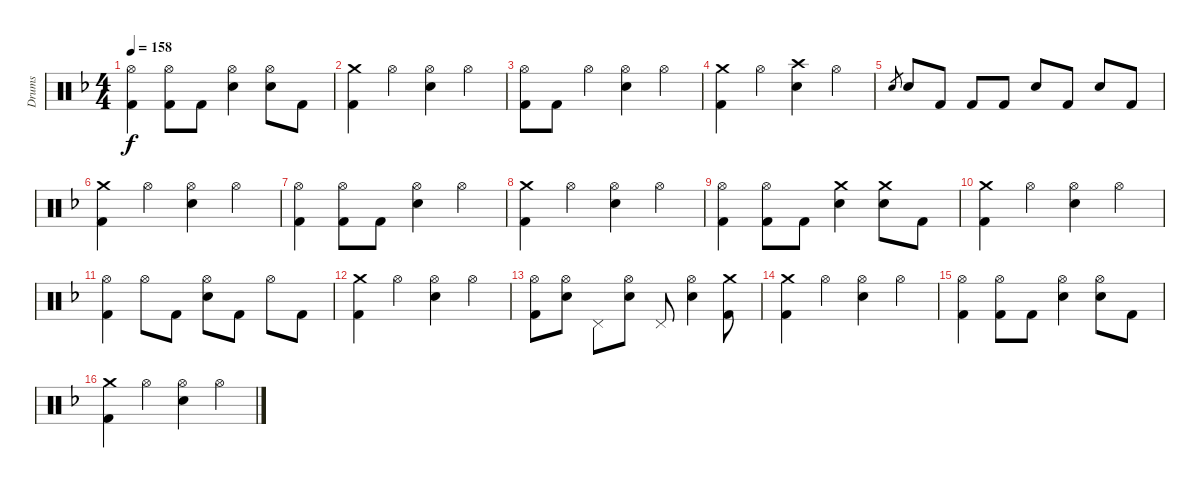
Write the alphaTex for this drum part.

\track ("Drums" "Drums") {instrument percussion}
\staff {score}
\articulation defaults
\ts (4 4)
\tempo 158
\clef neutral
\ks f
("Hi-Hat (open)" "Kick (hit) 2").4{dy f} ("Hi-Hat (open)" "Kick (hit) 2").8 "Kick (hit) 2".8 ("Hi-Hat (open)" "Snare (hit) 2").4 ("Hi-Hat (open)" "Snare (hit) 2").8 "Kick (hit) 2".8 |
("Crash medium (hit)" "Kick (hit) 2").4 "Hi-Hat (open)".4 ("Hi-Hat (open)" "Snare (hit) 2").4 "Hi-Hat (open)".4 |
("Hi-Hat (open)" "Kick (hit) 2").8 "Kick (hit) 2".8 "Hi-Hat (open)".4 ("Hi-Hat (open)" "Snare (hit) 2").4 "Hi-Hat (open)".4 |
("Crash medium (hit)" "Kick (hit) 2").4 "Hi-Hat (open)".4 ("Crash high (hit)" "Snare (hit) 2").4 "Hi-Hat (open)".4 |
"Snare (hit) 2".8{gr} "Snare (hit) 2".8 "Kick (hit) 2".8 "Kick (hit) 2".8 "Kick (hit) 2".8 "Snare (hit) 2".8 "Kick (hit) 2".8 "Snare (hit) 2".8 "Kick (hit) 2".8 |
("Crash medium (hit)" "Kick (hit) 2").4 "Hi-Hat (open)".4 ("Hi-Hat (open)" "Snare (hit) 2").4 "Hi-Hat (open)".4 |
("Hi-Hat (open)" "Kick (hit) 2").4 ("Hi-Hat (open)" "Kick (hit) 2").8 "Kick (hit) 2".8 ("Hi-Hat (open)" "Snare (hit) 2").4 "Hi-Hat (open)".4 |
("Crash medium (hit)" "Kick (hit) 2").4 "Hi-Hat (open)".4 ("Hi-Hat (open)" "Snare (hit) 2").4 "Hi-Hat (open)".4 |
("Hi-Hat (open)" "Kick (hit) 2").4 ("Hi-Hat (open)" "Kick (hit) 2").8 "Kick (hit) 2".8 ("Crash medium (hit)" "Snare (hit) 2").4 ("Crash medium (hit)" "Snare (hit) 2").8 "Kick (hit) 2".8 |
("Crash medium (hit)" "Kick (hit) 2").4 "Hi-Hat (open)".4 ("Hi-Hat (open)" "Snare (hit) 2").4 "Hi-Hat (open)".4 |
("Hi-Hat (open)" "Kick (hit) 2").4 "Hi-Hat (open)".8 "Kick (hit) 2".8 ("Hi-Hat (open)" "Snare (hit) 2").8 "Kick (hit) 2".8 "Hi-Hat (open)".8 "Kick (hit) 2".8 |
("Crash medium (hit)" "Kick (hit) 2").4 "Hi-Hat (open)".4 ("Hi-Hat (open)" "Snare (hit) 2").4 "Hi-Hat (open)".4 |
("Hi-Hat (open)" "Kick (hit) 2").8 ("Hi-Hat (open)" "Snare (hit) 2").8 "Pedal Hi-Hat (hit)".8 ("Hi-Hat (open)" "Snare (hit) 2").8 "Pedal Hi-Hat (hit)".8 ("Hi-Hat (open)" "Snare (hit) 2").4 ("Crash medium (hit)" "Kick (hit) 2").8 |
("Crash medium (hit)" "Kick (hit) 2").4 "Hi-Hat (open)".4 ("Hi-Hat (open)" "Snare (hit) 2").4 "Hi-Hat (open)".4 |
("Hi-Hat (open)" "Kick (hit) 2").4 ("Hi-Hat (open)" "Kick (hit) 2").8 "Kick (hit) 2".8 ("Hi-Hat (open)" "Snare (hit) 2").4 ("Hi-Hat (open)" "Snare (hit) 2").8 "Kick (hit) 2".8 |
("Crash medium (hit)" "Kick (hit) 2").4 "Hi-Hat (open)".4 ("Hi-Hat (open)" "Snare (hit) 2").4 "Hi-Hat (open)".4
